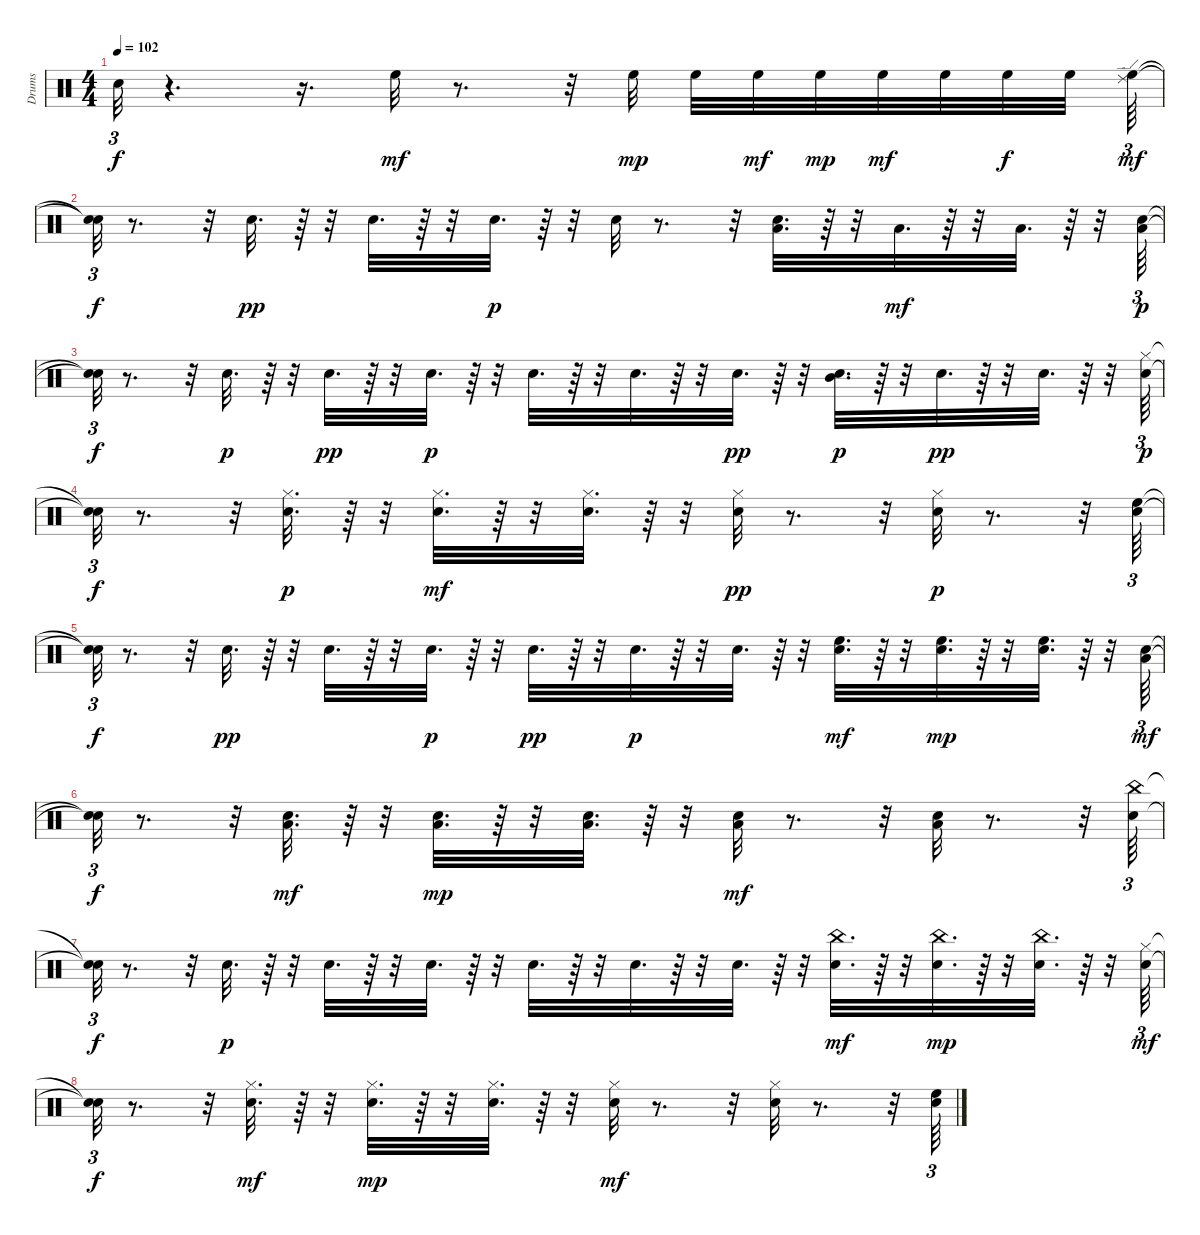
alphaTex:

\track ("Drums   " "Drums   ") {instrument percussion}
\staff {score}
\articulation defaults
\ts (4 4)
\tempo 102
\clef neutral
\ks c "Snare (hit)"{t}.32{tu (3 2) dy f}
r.4{d} r.16{d} "High Floor Tom (hit)".32{dy mf} r.8{d} r.32 "High Floor Tom (hit)".32{dy mp} "High Floor Tom (hit)".32 "High Floor Tom (hit)".32{dy mf} "High Floor Tom (hit)".32{dy mp} "High Floor Tom (hit)".32{dy mf} "High Floor Tom (hit)".32 "High Floor Tom (hit)".32{dy f} "High Floor Tom (hit)".32{beam splitsecondary} ("High Floor Tom (hit)" "Ride (edge) 2").64{tu (3 2) dy mf} |
("Snare (hit)"{t} "Snare (hit)"{t}).32{tu (3 2) dy f} r.8{d} r.32 "Electric Snare (hit)".32{d dy pp} r.64 r.32 "Electric Snare (hit)".32{d} r.64 r.32 "Electric Snare (hit)".32{d dy p} r.64 r.32 "Electric Snare (hit)".32 r.8{d} r.32 ("Electric Snare (hit)" "Low Tom (hit)").32{d} r.64 r.32 "Low Tom (hit)".32{d dy mf} r.64 r.32 "Low Tom (hit)".32{d} r.64 r.32 ("Electric Snare (hit)" "Low Tom (hit)").64{tu (3 2) dy p} |
("Snare (hit)"{t} "Snare (hit)"{t}).32{tu (3 2) dy f} r.8{d} r.32 "Electric Snare (hit)".32{d dy p} r.64 r.32 "Electric Snare (hit)".32{d dy pp} r.64 r.32 "Electric Snare (hit)".32{d dy p} r.64 r.32 "Electric Snare (hit)".32{d} r.64 r.32 "Electric Snare (hit)".32{d} r.64 r.32 "Electric Snare (hit)".32{d dy pp} r.64 r.32 ("Electric Snare (hit)" "Mid Tom (hit)").32{d dy p} r.64 r.32 "Electric Snare (hit)".32{d dy pp} r.64 r.32 "Electric Snare (hit)".32{d} r.64 r.32 ("Electric Snare (hit)" "Hi-Hat (closed)").64{tu (3 2) dy p} |
("Snare (hit)"{t} "Snare (hit)"{t}).32{tu (3 2) dy f} r.8{d} r.32 ("Electric Snare (hit)" "Hi-Hat (closed)").32{d dy p} r.64 r.32 ("Electric Snare (hit)" "Hi-Hat (closed)").32{d dy mf} r.64 r.32 ("Electric Snare (hit)" "Hi-Hat (closed)").32{d} r.64 r.32 ("Electric Snare (hit)" "Hi-Hat (closed)").32{dy pp} r.8{d} r.32 ("Electric Snare (hit)" "Hi-Hat (closed)").32{dy p} r.8{d} r.32 ("Electric Snare (hit)" "High Floor Tom (hit)").64{tu (3 2)} |
("Snare (hit)"{t} "Snare (hit)"{t}).32{tu (3 2) dy f} r.8{d} r.32 "Electric Snare (hit)".32{d dy pp} r.64 r.32 "Electric Snare (hit)".32{d} r.64 r.32 "Electric Snare (hit)".32{d dy p} r.64 r.32 "Electric Snare (hit)".32{d dy pp} r.64 r.32 "Electric Snare (hit)".32{d dy p} r.64 r.32 "Electric Snare (hit)".32{d} r.64 r.32 ("Electric Snare (hit)" "High Floor Tom (hit)").32{d dy mf} r.64 r.32 ("Electric Snare (hit)" "High Floor Tom (hit)").32{d dy mp} r.64 r.32 ("Electric Snare (hit)" "High Floor Tom (hit)").32{d} r.64 r.32 ("Electric Snare (hit)" "Low Tom (hit)").64{tu (3 2) dy mf} |
("Snare (hit)"{t} "Snare (hit)"{t}).32{tu (3 2) dy f} r.8{d} r.32 ("Electric Snare (hit)" "Low Tom (hit)").32{d dy mf} r.64 r.32 ("Electric Snare (hit)" "Low Tom (hit)").32{d dy mp} r.64 r.32 ("Electric Snare (hit)" "Low Tom (hit)").32{d} r.64 r.32 ("Electric Snare (hit)" "Low Tom (hit)").32{dy mf} r.8{d} r.32 ("Electric Snare (hit)" "Low Tom (hit)").32 r.8{d} r.32 ("Electric Snare (hit)" "China (hit)").64{tu (3 2)} |
("Snare (hit)"{t} "Snare (hit)"{t}).32{tu (3 2) dy f} r.8{d} r.32 "Electric Snare (hit)".32{d dy p} r.64 r.32 "Electric Snare (hit)".32{d} r.64 r.32 "Electric Snare (hit)".32{d} r.64 r.32 "Electric Snare (hit)".32{d} r.64 r.32 "Electric Snare (hit)".32{d} r.64 r.32 "Electric Snare (hit)".32{d} r.64 r.32 ("Electric Snare (hit)" "China (hit)").32{d dy mf} r.64 r.32 ("Electric Snare (hit)" "China (hit)").32{d dy mp} r.64 r.32 ("Electric Snare (hit)" "China (hit)").32{d} r.64 r.32 ("Electric Snare (hit)" "Hi-Hat (closed)").64{tu (3 2) dy mf} |
("Snare (hit)"{t} "Snare (hit)"{t}).32{tu (3 2) dy f} r.8{d} r.32 ("Electric Snare (hit)" "Hi-Hat (closed)").32{d dy mf} r.64 r.32 ("Electric Snare (hit)" "Hi-Hat (closed)").32{d dy mp} r.64 r.32 ("Electric Snare (hit)" "Hi-Hat (closed)").32{d} r.64 r.32 ("Electric Snare (hit)" "Hi-Hat (closed)").32{dy mf} r.8{d} r.32 ("Electric Snare (hit)" "Hi-Hat (closed)").32 r.8{d} r.32 ("Electric Snare (hit)" "High Floor Tom (hit)").64{tu (3 2)}
